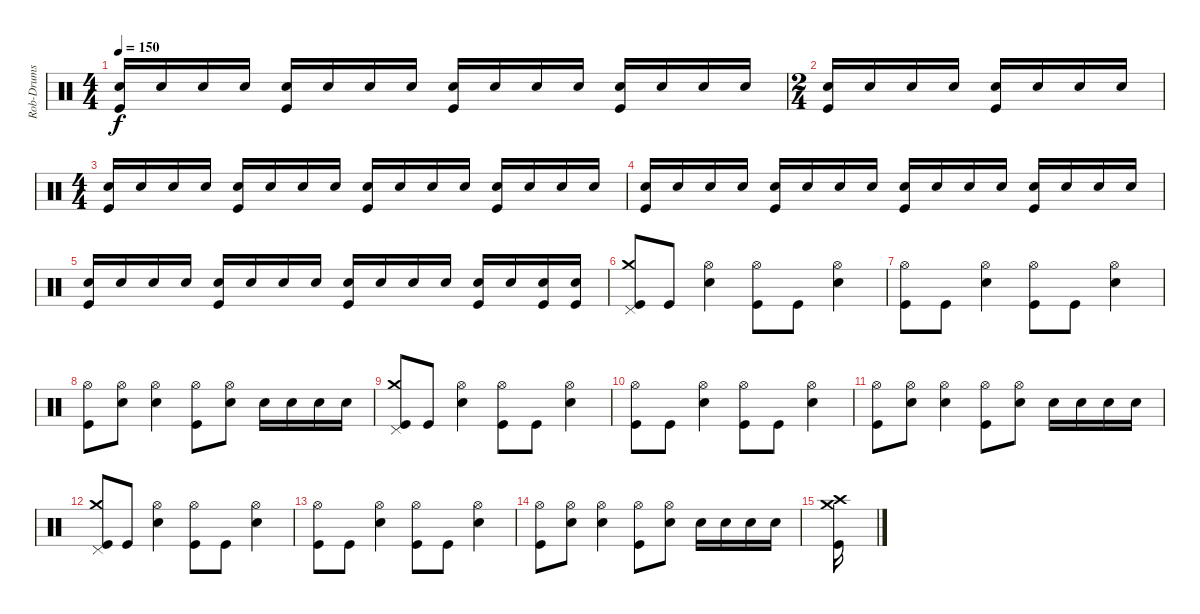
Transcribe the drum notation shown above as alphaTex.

\track ("Rob-Drums" "Rob-Drums") {instrument percussion}
\staff {score}
\articulation defaults
\ts (4 4)
\tempo 150
\clef neutral
\ks c
("Snare (hit) 2" "Kick (hit)").16{dy f volume 6} "Snare (hit) 2".16 "Snare (hit) 2".16 "Snare (hit) 2".16 ("Snare (hit) 2" "Kick (hit)").16 "Snare (hit) 2".16 "Snare (hit) 2".16 "Snare (hit) 2".16 ("Snare (hit) 2" "Kick (hit)").16 "Snare (hit) 2".16 "Snare (hit) 2".16 "Snare (hit) 2".16 ("Snare (hit) 2" "Kick (hit)").16 "Snare (hit) 2".16 "Snare (hit) 2".16 "Snare (hit) 2".16 |
\ts (2 4)
("Snare (hit) 2" "Kick (hit)").16 "Snare (hit) 2".16 "Snare (hit) 2".16 "Snare (hit) 2".16 ("Snare (hit) 2" "Kick (hit)").16 "Snare (hit) 2".16 "Snare (hit) 2".16 "Snare (hit) 2".16 |
\ts (4 4)
("Snare (hit) 2" "Kick (hit)").16{volume 6} "Snare (hit) 2".16 "Snare (hit) 2".16 "Snare (hit) 2".16 ("Snare (hit) 2" "Kick (hit)").16 "Snare (hit) 2".16 "Snare (hit) 2".16 "Snare (hit) 2".16 ("Snare (hit) 2" "Kick (hit)").16 "Snare (hit) 2".16 "Snare (hit) 2".16 "Snare (hit) 2".16 ("Snare (hit) 2" "Kick (hit)").16 "Snare (hit) 2".16 "Snare (hit) 2".16 "Snare (hit) 2".16 |
("Snare (hit) 2" "Kick (hit)").16{volume 6} "Snare (hit) 2".16 "Snare (hit) 2".16 "Snare (hit) 2".16 ("Snare (hit) 2" "Kick (hit)").16 "Snare (hit) 2".16 "Snare (hit) 2".16 "Snare (hit) 2".16 ("Snare (hit) 2" "Kick (hit)").16 "Snare (hit) 2".16 "Snare (hit) 2".16 "Snare (hit) 2".16 ("Snare (hit) 2" "Kick (hit)").16 "Snare (hit) 2".16 "Snare (hit) 2".16 "Snare (hit) 2".16 |
("Snare (hit) 2" "Kick (hit)").16{volume 13} "Snare (hit) 2".16 "Snare (hit) 2".16 "Snare (hit) 2".16 ("Snare (hit) 2" "Kick (hit)").16 "Snare (hit) 2".16 "Snare (hit) 2".16 "Snare (hit) 2".16 ("Snare (hit) 2" "Kick (hit)").16 "Snare (hit) 2".16 "Snare (hit) 2".16 "Snare (hit) 2".16 ("Snare (hit) 2" "Kick (hit)").16 "Snare (hit) 2".16 ("Snare (hit) 2" "Kick (hit)").16 ("Snare (hit) 2" "Kick (hit)").16 |
("Crash medium (hit)" "Pedal Hi-Hat (hit)" "Kick (hit)").8 "Kick (hit)".8 ("Hi-Hat (open)" "Snare (hit) 2").4 ("Hi-Hat (open)" "Kick (hit)").8 "Kick (hit)".8 ("Hi-Hat (open)" "Snare (hit) 2").4 |
("Hi-Hat (open)" "Kick (hit)").8 "Kick (hit)".8 ("Hi-Hat (open)" "Snare (hit) 2").4 ("Hi-Hat (open)" "Kick (hit)").8 "Kick (hit)".8 ("Hi-Hat (open)" "Snare (hit) 2").4 |
("Hi-Hat (open)" "Kick (hit)").8 ("Hi-Hat (open)" "Snare (hit) 2").8 ("Hi-Hat (open)" "Snare (hit) 2").4 ("Hi-Hat (open)" "Kick (hit)").8 ("Hi-Hat (open)" "Snare (hit) 2").8 "Snare (hit) 2".16 "Snare (hit) 2".16 "Snare (hit) 2".16 "Snare (hit) 2".16 |
("Crash medium (hit)" "Pedal Hi-Hat (hit)" "Kick (hit)").8 "Kick (hit)".8 ("Hi-Hat (open)" "Snare (hit) 2").4 ("Hi-Hat (open)" "Kick (hit)").8 "Kick (hit)".8 ("Hi-Hat (open)" "Snare (hit) 2").4 |
("Hi-Hat (open)" "Kick (hit)").8 "Kick (hit)".8 ("Hi-Hat (open)" "Snare (hit) 2").4 ("Hi-Hat (open)" "Kick (hit)").8 "Kick (hit)".8 ("Hi-Hat (open)" "Snare (hit) 2").4 |
("Hi-Hat (open)" "Kick (hit)").8 ("Hi-Hat (open)" "Snare (hit) 2").8 ("Hi-Hat (open)" "Snare (hit) 2").4 ("Hi-Hat (open)" "Kick (hit)").8 ("Hi-Hat (open)" "Snare (hit) 2").8 "Snare (hit) 2".16 "Snare (hit) 2".16 "Snare (hit) 2".16 "Snare (hit) 2".16 |
("Crash medium (hit)" "Pedal Hi-Hat (hit)" "Kick (hit)").8 "Kick (hit)".8 ("Hi-Hat (open)" "Snare (hit) 2").4 ("Hi-Hat (open)" "Kick (hit)").8 "Kick (hit)".8 ("Hi-Hat (open)" "Snare (hit) 2").4 |
("Hi-Hat (open)" "Kick (hit)").8 "Kick (hit)".8 ("Hi-Hat (open)" "Snare (hit) 2").4 ("Hi-Hat (open)" "Kick (hit)").8 "Kick (hit)".8 ("Hi-Hat (open)" "Snare (hit) 2").4 |
("Hi-Hat (open)" "Kick (hit)").8 ("Hi-Hat (open)" "Snare (hit) 2").8 ("Hi-Hat (open)" "Snare (hit) 2").4 ("Hi-Hat (open)" "Kick (hit)").8 ("Hi-Hat (open)" "Snare (hit) 2").8 "Snare (hit) 2".16 "Snare (hit) 2".16 "Snare (hit) 2".16 "Snare (hit) 2".16 |
("Crash high (hit)" "Crash medium (hit)" "Kick (hit)").16
